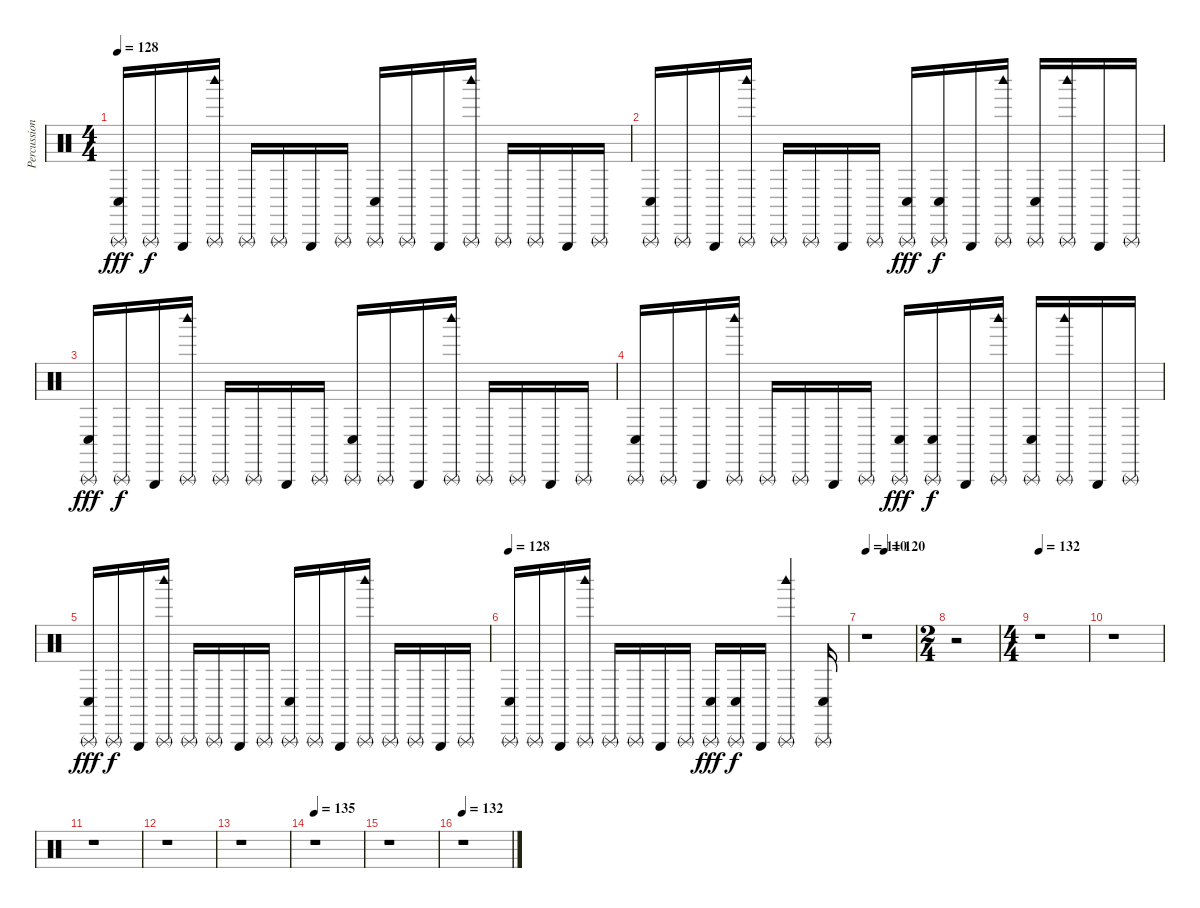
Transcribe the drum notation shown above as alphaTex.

\track ("Percussion" "Percussion") {instrument percussion}
\staff {score}
\articulation defaults
\ts (4 4)
\tempo 128
\clef neutral
\ks c
("Conga low (hit)" "Triangle (rnute)").16{dy fff} "Triangle (rnute)".16{dy f} "Triangle (hit)".16 ("Woodblock high (hit)" "Triangle (rnute)").16 "Triangle (rnute)".16 "Triangle (rnute)".16 "Triangle (hit)".16 "Triangle (rnute)".16 ("Conga low (hit)" "Triangle (rnute)").16 "Triangle (rnute)".16 "Triangle (hit)".16 ("Woodblock high (hit)" "Triangle (rnute)").16 "Triangle (rnute)".16 "Triangle (rnute)".16 "Triangle (hit)".16 "Triangle (rnute)".16 |
("Conga low (hit)" "Triangle (rnute)").16 "Triangle (rnute)".16 "Triangle (hit)".16 ("Woodblock high (hit)" "Triangle (rnute)").16 "Triangle (rnute)".16 "Triangle (rnute)".16 "Triangle (hit)".16 "Triangle (rnute)".16 ("Conga low (hit)" "Triangle (rnute)").16{dy fff} ("Conga low (hit)" "Triangle (rnute)").16{dy f} "Triangle (hit)".16 ("Woodblock high (hit)" "Triangle (rnute)").16 ("Conga low (hit)" "Triangle (rnute)").16 ("Woodblock high (hit)" "Triangle (rnute)").16 "Triangle (hit)".16 "Triangle (rnute)".16 |
("Conga low (hit)" "Triangle (rnute)").16{dy fff} "Triangle (rnute)".16{dy f} "Triangle (hit)".16 ("Woodblock high (hit)" "Triangle (rnute)").16 "Triangle (rnute)".16 "Triangle (rnute)".16 "Triangle (hit)".16 "Triangle (rnute)".16 ("Conga low (hit)" "Triangle (rnute)").16 "Triangle (rnute)".16 "Triangle (hit)".16 ("Woodblock high (hit)" "Triangle (rnute)").16 "Triangle (rnute)".16 "Triangle (rnute)".16 "Triangle (hit)".16 "Triangle (rnute)".16 |
("Conga low (hit)" "Triangle (rnute)").16 "Triangle (rnute)".16 "Triangle (hit)".16 ("Woodblock high (hit)" "Triangle (rnute)").16 "Triangle (rnute)".16 "Triangle (rnute)".16 "Triangle (hit)".16 "Triangle (rnute)".16 ("Conga low (hit)" "Triangle (rnute)").16{dy fff} ("Conga low (hit)" "Triangle (rnute)").16{dy f} "Triangle (hit)".16 ("Woodblock high (hit)" "Triangle (rnute)").16 ("Conga low (hit)" "Triangle (rnute)").16 ("Woodblock high (hit)" "Triangle (rnute)").16 "Triangle (hit)".16 "Triangle (rnute)".16 |
("Conga low (hit)" "Triangle (rnute)").16{dy fff} "Triangle (rnute)".16{dy f} "Triangle (hit)".16 ("Woodblock high (hit)" "Triangle (rnute)").16 "Triangle (rnute)".16 "Triangle (rnute)".16 "Triangle (hit)".16 "Triangle (rnute)".16 ("Conga low (hit)" "Triangle (rnute)").16 "Triangle (rnute)".16 "Triangle (hit)".16 ("Woodblock high (hit)" "Triangle (rnute)").16 "Triangle (rnute)".16 "Triangle (rnute)".16 "Triangle (hit)".16 "Triangle (rnute)".16 |
\tempo 128
("Conga low (hit)" "Triangle (rnute)").16 "Triangle (rnute)".16 "Triangle (hit)".16 ("Woodblock high (hit)" "Triangle (rnute)").16 "Triangle (rnute)".16 "Triangle (rnute)".16 "Triangle (hit)".16 "Triangle (rnute)".16 ("Conga low (hit)" "Triangle (rnute)").16{dy fff} ("Conga low (hit)" "Triangle (rnute)").16{dy f} "Triangle (hit)".16 ("Woodblock high (hit)" "Triangle (rnute)").4 ("Conga low (hit)" "Triangle (rnute)").16 |
\tempo 110
\tempo (120 0.375)
r.1 |
\ts (2 4)
r.2 |
\ts (4 4)
\tempo 132
r.1 |
r.1 |
r.1 |
r.1 |
r.1 |
\tempo 135
r.1 |
r.1 |
\tempo 132
r.1
